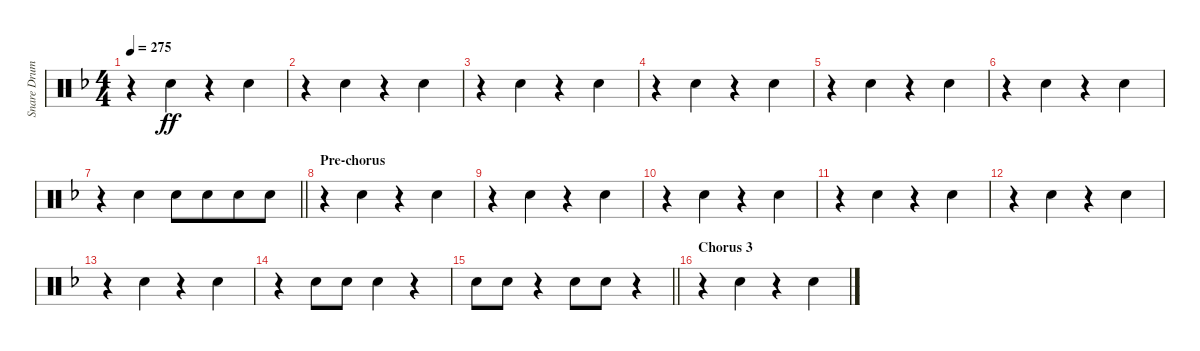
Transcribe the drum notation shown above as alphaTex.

\track ("Snare Drum" "Snare Drum") {instrument percussion}
\staff {score}
\articulation defaults
\ts (4 4)
\tempo 275
\clef neutral
\ks dminor
r.4{dy ff} "Electric Snare (hit)".4 r.4 "Electric Snare (hit)".4 |
r.4 "Electric Snare (hit)".4 r.4 "Electric Snare (hit)".4 |
r.4 "Electric Snare (hit)".4 r.4 "Electric Snare (hit)".4 |
r.4 "Electric Snare (hit)".4 r.4 "Electric Snare (hit)".4 |
r.4 "Electric Snare (hit)".4 r.4 "Electric Snare (hit)".4 |
r.4 "Electric Snare (hit)".4 r.4 "Electric Snare (hit)".4 |
\barLineRight lightlight
r.4 "Electric Snare (hit)".4 "Electric Snare (hit)".8 "Electric Snare (hit)".8{beam merge} "Electric Snare (hit)".8 "Electric Snare (hit)".8 |
\section ("" "Pre-chorus")
r.4 "Electric Snare (hit)".4 r.4 "Electric Snare (hit)".4 |
r.4 "Electric Snare (hit)".4 r.4 "Electric Snare (hit)".4 |
r.4 "Electric Snare (hit)".4 r.4 "Electric Snare (hit)".4 |
r.4 "Electric Snare (hit)".4 r.4 "Electric Snare (hit)".4 |
r.4 "Electric Snare (hit)".4 r.4 "Electric Snare (hit)".4 |
r.4 "Electric Snare (hit)".4 r.4 "Electric Snare (hit)".4 |
r.4 "Electric Snare (hit)".8 "Electric Snare (hit)".8 "Electric Snare (hit)".4 r.4 |
\barLineRight lightlight "Electric Snare (hit)".8 "Electric Snare (hit)".8
r.4 "Electric Snare (hit)".8 "Electric Snare (hit)".8 r.4 |
\section ("" "Chorus 3")
r.4 "Electric Snare (hit)".4 r.4 "Electric Snare (hit)".4
